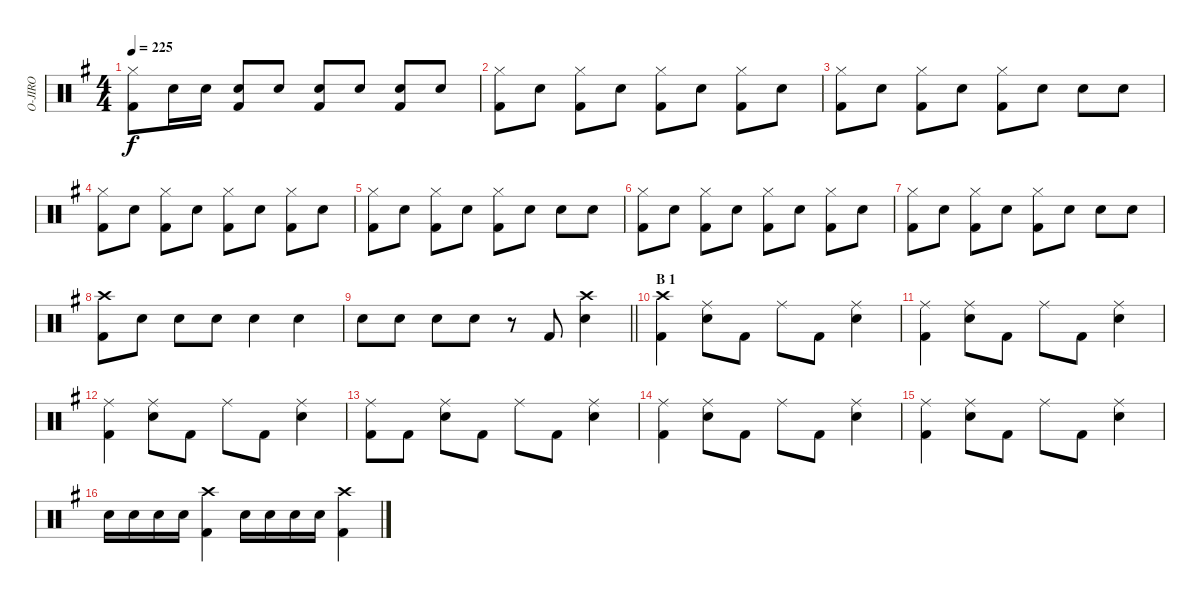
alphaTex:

\track ("O-JIRO" "O-JIRO") {instrument percussion}
\staff {score}
\articulation defaults
\ts (4 4)
\tempo 225
\clef neutral
\ks g
("Hi-Hat (closed)" "Kick (hit) 2").8{dy f} "Snare (hit) 2".16 "Snare (hit) 2".16 ("Snare (hit) 2" "Kick (hit) 2").8 "Snare (hit) 2".8 ("Snare (hit) 2" "Kick (hit) 2").8 "Snare (hit) 2".8 ("Kick (hit) 2" "Snare (hit) 2").8 "Snare (hit) 2".8 |
("Hi-Hat (closed)" "Kick (hit) 2").8 "Snare (hit) 2".8 ("Hi-Hat (closed)" "Kick (hit) 2").8 "Snare (hit) 2".8 ("Hi-Hat (closed)" "Kick (hit) 2").8 "Snare (hit) 2".8 ("Hi-Hat (closed)" "Kick (hit) 2").8 "Snare (hit) 2".8 |
("Hi-Hat (closed)" "Kick (hit) 2").8 "Snare (hit) 2".8 ("Hi-Hat (closed)" "Kick (hit) 2").8 "Snare (hit) 2".8 ("Hi-Hat (closed)" "Kick (hit) 2").8 "Snare (hit) 2".8 "Snare (hit) 2".8 "Snare (hit) 2".8 |
("Hi-Hat (closed)" "Kick (hit) 2").8 "Snare (hit) 2".8 ("Hi-Hat (closed)" "Kick (hit) 2").8 "Snare (hit) 2".8 ("Hi-Hat (closed)" "Kick (hit) 2").8 "Snare (hit) 2".8 ("Hi-Hat (closed)" "Kick (hit) 2").8 "Snare (hit) 2".8 |
("Hi-Hat (closed)" "Kick (hit) 2").8 "Snare (hit) 2".8 ("Hi-Hat (closed)" "Kick (hit) 2").8 "Snare (hit) 2".8 ("Hi-Hat (closed)" "Kick (hit) 2").8 "Snare (hit) 2".8 "Snare (hit) 2".8 "Snare (hit) 2".8 |
("Hi-Hat (closed)" "Kick (hit) 2").8 "Snare (hit) 2".8 ("Hi-Hat (closed)" "Kick (hit) 2").8 "Snare (hit) 2".8 ("Hi-Hat (closed)" "Kick (hit) 2").8 "Snare (hit) 2".8 ("Hi-Hat (closed)" "Kick (hit) 2").8 "Snare (hit) 2".8 |
("Hi-Hat (closed)" "Kick (hit) 2").8 "Snare (hit) 2".8 ("Hi-Hat (closed)" "Kick (hit) 2").8 "Snare (hit) 2".8 ("Hi-Hat (closed)" "Kick (hit) 2").8 "Snare (hit) 2".8 "Snare (hit) 2".8 "Snare (hit) 2".8 |
("Crash high (hit)" "Kick (hit) 2").8 "Snare (hit) 2".8 "Snare (hit) 2".8 "Snare (hit) 2".8 "Snare (hit) 2".4 "Snare (hit) 2".4 |
\barLineRight lightlight "Snare (hit) 2".8 "Snare (hit) 2".8 "Snare (hit) 2".8 "Snare (hit) 2".8
r.8 "Kick (hit) 2".8 ("Crash high (hit)" "Snare (hit) 2").4 |
\section ("" "B 1")
("Crash high (hit)" "Kick (hit) 2").4 ("Ride (middle)" "Snare (hit) 2").8 "Kick (hit) 2".8 "Ride (middle)".8 "Kick (hit) 2".8 ("Ride (middle)" "Snare (hit) 2").4 |
("Ride (middle)" "Kick (hit) 2").4 ("Ride (middle)" "Snare (hit) 2").8 "Kick (hit) 2".8 "Ride (middle)".8 "Kick (hit) 2".8 ("Ride (middle)" "Snare (hit) 2").4 |
("Ride (middle)" "Kick (hit) 2").4 ("Ride (middle)" "Snare (hit) 2").8 "Kick (hit) 2".8 "Ride (middle)".8 "Kick (hit) 2".8 ("Ride (middle)" "Snare (hit) 2").4 |
("Ride (middle)" "Kick (hit) 2").8 "Kick (hit) 2".8 ("Ride (middle)" "Snare (hit) 2").8 "Kick (hit) 2".8 "Ride (middle)".8 "Kick (hit) 2".8 ("Ride (middle)" "Snare (hit) 2").4 |
("Ride (middle)" "Kick (hit) 2").4 ("Ride (middle)" "Snare (hit) 2").8 "Kick (hit) 2".8 "Ride (middle)".8 "Kick (hit) 2".8 ("Ride (middle)" "Snare (hit) 2").4 |
("Ride (middle)" "Kick (hit) 2").4 ("Ride (middle)" "Snare (hit) 2").8 "Kick (hit) 2".8 "Ride (middle)".8 "Kick (hit) 2".8 ("Ride (middle)" "Snare (hit) 2").4 |
"Snare (hit) 2".16 "Snare (hit) 2".16 "Snare (hit) 2".16 "Snare (hit) 2".16 ("Crash high (hit)" "Kick (hit) 2").4 "Snare (hit) 2".16 "Snare (hit) 2".16 "Snare (hit) 2".16 "Snare (hit) 2".16 ("Crash high (hit)" "Kick (hit) 2").4
